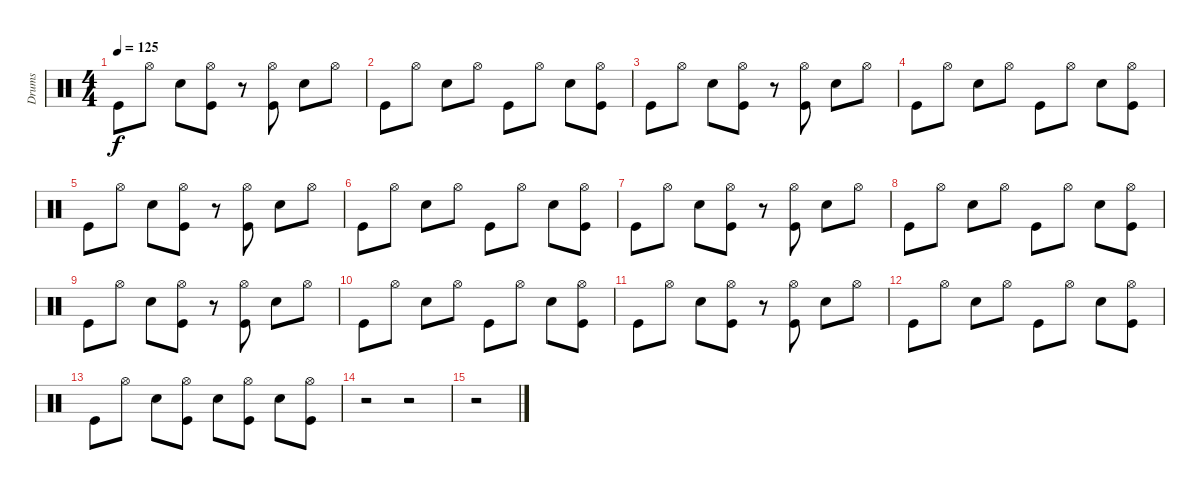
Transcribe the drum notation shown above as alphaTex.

\track ("Drums" "Drums") {instrument percussion}
\staff {score}
\articulation defaults
\ts (4 4)
\tempo 125
\clef neutral
\ks c "Kick (hit)".8{dy f} "Hi-Hat (open)".8 "Electric Snare (hit)".8
("Hi-Hat (open)" "Kick (hit)").8 r.8 ("Hi-Hat (open)" "Kick (hit)").8 "Electric Snare (hit)".8 "Hi-Hat (open)".8 |
"Kick (hit)".8 "Hi-Hat (open)".8 "Electric Snare (hit)".8 "Hi-Hat (open)".8 "Kick (hit)".8 "Hi-Hat (open)".8 "Electric Snare (hit)".8 ("Hi-Hat (open)" "Kick (hit)").8 |
"Kick (hit)".8 "Hi-Hat (open)".8 "Electric Snare (hit)".8 ("Hi-Hat (open)" "Kick (hit)").8 r.8 ("Hi-Hat (open)" "Kick (hit)").8 "Electric Snare (hit)".8 "Hi-Hat (open)".8 |
"Kick (hit)".8 "Hi-Hat (open)".8 "Electric Snare (hit)".8 "Hi-Hat (open)".8 "Kick (hit)".8 "Hi-Hat (open)".8 "Electric Snare (hit)".8 ("Hi-Hat (open)" "Kick (hit)").8 |
"Kick (hit)".8 "Hi-Hat (open)".8 "Electric Snare (hit)".8 ("Hi-Hat (open)" "Kick (hit)").8 r.8 ("Hi-Hat (open)" "Kick (hit)").8 "Electric Snare (hit)".8 "Hi-Hat (open)".8 |
"Kick (hit)".8 "Hi-Hat (open)".8 "Electric Snare (hit)".8 "Hi-Hat (open)".8 "Kick (hit)".8 "Hi-Hat (open)".8 "Electric Snare (hit)".8 ("Hi-Hat (open)" "Kick (hit)").8 |
"Kick (hit)".8 "Hi-Hat (open)".8 "Electric Snare (hit)".8 ("Hi-Hat (open)" "Kick (hit)").8 r.8 ("Hi-Hat (open)" "Kick (hit)").8 "Electric Snare (hit)".8 "Hi-Hat (open)".8 |
"Kick (hit)".8 "Hi-Hat (open)".8 "Electric Snare (hit)".8 "Hi-Hat (open)".8 "Kick (hit)".8 "Hi-Hat (open)".8 "Electric Snare (hit)".8 ("Hi-Hat (open)" "Kick (hit)").8 |
"Kick (hit)".8 "Hi-Hat (open)".8 "Electric Snare (hit)".8 ("Hi-Hat (open)" "Kick (hit)").8 r.8 ("Hi-Hat (open)" "Kick (hit)").8 "Electric Snare (hit)".8 "Hi-Hat (open)".8 |
"Kick (hit)".8 "Hi-Hat (open)".8 "Electric Snare (hit)".8 "Hi-Hat (open)".8 "Kick (hit)".8 "Hi-Hat (open)".8 "Electric Snare (hit)".8 ("Hi-Hat (open)" "Kick (hit)").8 |
"Kick (hit)".8 "Hi-Hat (open)".8 "Electric Snare (hit)".8 ("Hi-Hat (open)" "Kick (hit)").8 r.8 ("Hi-Hat (open)" "Kick (hit)").8 "Electric Snare (hit)".8 "Hi-Hat (open)".8 |
"Kick (hit)".8 "Hi-Hat (open)".8 "Electric Snare (hit)".8 "Hi-Hat (open)".8 "Kick (hit)".8 "Hi-Hat (open)".8 "Electric Snare (hit)".8 ("Hi-Hat (open)" "Kick (hit)").8 |
"Kick (hit)".8 "Hi-Hat (open)".8 "Electric Snare (hit)".8 ("Hi-Hat (open)" "Kick (hit)").8 "Electric Snare (hit)".8 ("Hi-Hat (open)" "Kick (hit)").8 "Electric Snare (hit)".8 ("Hi-Hat (open)" "Kick (hit)").8 |
r.2 r.2 |
r.2
